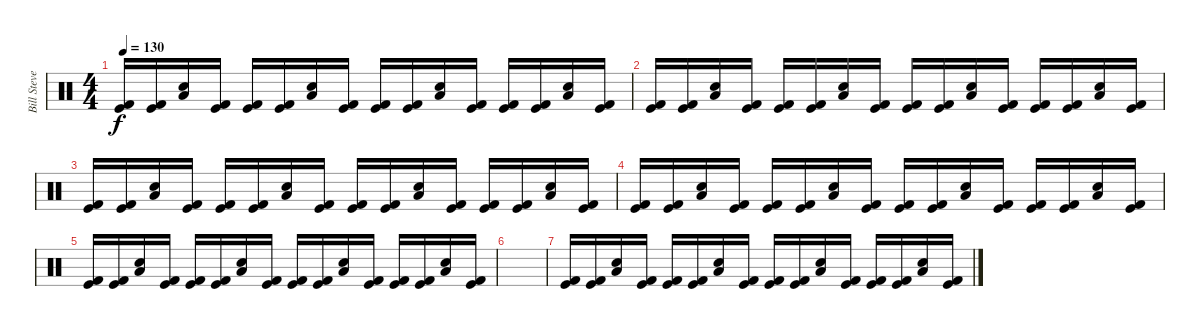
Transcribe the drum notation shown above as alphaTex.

\track ("Bill Stevenson" "Bill Steve") {instrument percussion}
\staff {score}
\articulation defaults
\ts (4 4)
\tempo 130
\clef neutral
\ks c
("Kick (hit) 2" "Kick (hit)").16{dy f} ("Kick (hit) 2" "Kick (hit)").16 ("Low Tom (hit)" "Electric Snare (hit)").16 ("Kick (hit) 2" "Kick (hit)").16 ("Kick (hit) 2" "Kick (hit)").16 ("Kick (hit) 2" "Kick (hit)").16 ("Low Tom (hit)" "Electric Snare (hit)").16 ("Kick (hit) 2" "Kick (hit)").16 ("Kick (hit) 2" "Kick (hit)").16 ("Kick (hit) 2" "Kick (hit)").16 ("Low Tom (hit)" "Electric Snare (hit)").16 ("Kick (hit) 2" "Kick (hit)").16 ("Kick (hit) 2" "Kick (hit)").16 ("Kick (hit) 2" "Kick (hit)").16 ("Low Tom (hit)" "Electric Snare (hit)").16 ("Kick (hit) 2" "Kick (hit)").16 |
("Kick (hit) 2" "Kick (hit)").16 ("Kick (hit) 2" "Kick (hit)").16 ("Low Tom (hit)" "Electric Snare (hit)").16 ("Kick (hit) 2" "Kick (hit)").16 ("Kick (hit) 2" "Kick (hit)").16 ("Kick (hit) 2" "Kick (hit)").16 ("Low Tom (hit)" "Electric Snare (hit)").16 ("Kick (hit) 2" "Kick (hit)").16 ("Kick (hit) 2" "Kick (hit)").16 ("Kick (hit) 2" "Kick (hit)").16 ("Low Tom (hit)" "Electric Snare (hit)").16 ("Kick (hit) 2" "Kick (hit)").16 ("Kick (hit) 2" "Kick (hit)").16 ("Kick (hit) 2" "Kick (hit)").16 ("Low Tom (hit)" "Electric Snare (hit)").16 ("Kick (hit) 2" "Kick (hit)").16 |
("Kick (hit) 2" "Kick (hit)").16 ("Kick (hit) 2" "Kick (hit)").16 ("Low Tom (hit)" "Electric Snare (hit)").16 ("Kick (hit) 2" "Kick (hit)").16 ("Kick (hit) 2" "Kick (hit)").16 ("Kick (hit) 2" "Kick (hit)").16 ("Low Tom (hit)" "Electric Snare (hit)").16 ("Kick (hit) 2" "Kick (hit)").16 ("Kick (hit) 2" "Kick (hit)").16 ("Kick (hit) 2" "Kick (hit)").16 ("Low Tom (hit)" "Electric Snare (hit)").16 ("Kick (hit) 2" "Kick (hit)").16 ("Kick (hit) 2" "Kick (hit)").16 ("Kick (hit) 2" "Kick (hit)").16 ("Low Tom (hit)" "Electric Snare (hit)").16 ("Kick (hit) 2" "Kick (hit)").16 |
("Kick (hit) 2" "Kick (hit)").16 ("Kick (hit) 2" "Kick (hit)").16 ("Low Tom (hit)" "Electric Snare (hit)").16 ("Kick (hit) 2" "Kick (hit)").16 ("Kick (hit) 2" "Kick (hit)").16 ("Kick (hit) 2" "Kick (hit)").16 ("Low Tom (hit)" "Electric Snare (hit)").16 ("Kick (hit) 2" "Kick (hit)").16 ("Kick (hit) 2" "Kick (hit)").16 ("Kick (hit) 2" "Kick (hit)").16 ("Low Tom (hit)" "Electric Snare (hit)").16 ("Kick (hit) 2" "Kick (hit)").16 ("Kick (hit) 2" "Kick (hit)").16 ("Kick (hit) 2" "Kick (hit)").16 ("Low Tom (hit)" "Electric Snare (hit)").16 ("Kick (hit) 2" "Kick (hit)").16 |
("Kick (hit) 2" "Kick (hit)").16 ("Kick (hit) 2" "Kick (hit)").16 ("Low Tom (hit)" "Electric Snare (hit)").16 ("Kick (hit) 2" "Kick (hit)").16 ("Kick (hit) 2" "Kick (hit)").16 ("Kick (hit) 2" "Kick (hit)").16 ("Low Tom (hit)" "Electric Snare (hit)").16 ("Kick (hit) 2" "Kick (hit)").16 ("Kick (hit) 2" "Kick (hit)").16 ("Kick (hit) 2" "Kick (hit)").16 ("Low Tom (hit)" "Electric Snare (hit)").16 ("Kick (hit) 2" "Kick (hit)").16 ("Kick (hit) 2" "Kick (hit)").16 ("Kick (hit) 2" "Kick (hit)").16 ("Low Tom (hit)" "Electric Snare (hit)").16 ("Kick (hit) 2" "Kick (hit)").16 |
|
("Kick (hit) 2" "Kick (hit)").16 ("Kick (hit) 2" "Kick (hit)").16 ("Low Tom (hit)" "Electric Snare (hit)").16 ("Kick (hit) 2" "Kick (hit)").16 ("Kick (hit) 2" "Kick (hit)").16 ("Kick (hit) 2" "Kick (hit)").16 ("Low Tom (hit)" "Electric Snare (hit)").16 ("Kick (hit) 2" "Kick (hit)").16 ("Kick (hit) 2" "Kick (hit)").16 ("Kick (hit) 2" "Kick (hit)").16 ("Low Tom (hit)" "Electric Snare (hit)").16 ("Kick (hit) 2" "Kick (hit)").16 ("Kick (hit) 2" "Kick (hit)").16 ("Kick (hit) 2" "Kick (hit)").16 ("Low Tom (hit)" "Electric Snare (hit)").16 ("Kick (hit) 2" "Kick (hit)").16
